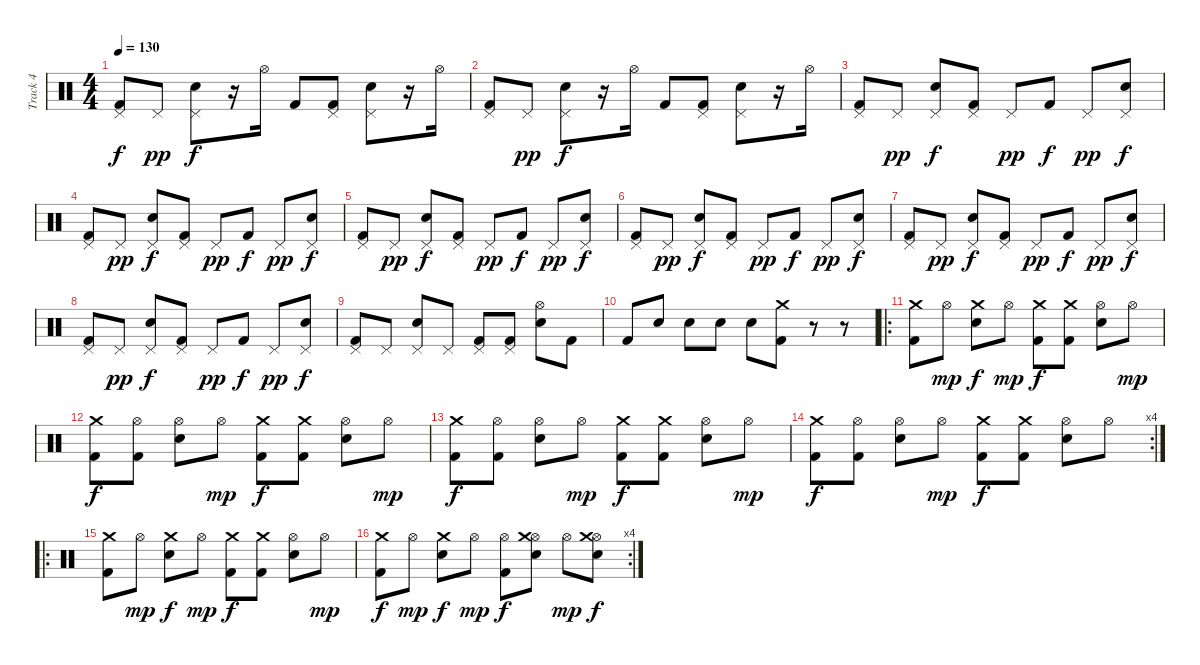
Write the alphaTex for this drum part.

\track ("Track 4" "Track 4") {instrument percussion}
\staff {score}
\articulation defaults
\ts (4 4)
\tempo 130
\clef neutral
\ks c
("Pedal Hi-Hat (hit)" "Kick (hit) 2").8{dy f} "Pedal Hi-Hat (hit)".8{dy pp} ("Pedal Hi-Hat (hit)" "Electric Snare (hit)").8{dy f} r.16 "Hi-Hat (open)".16 "Kick (hit) 2".8 ("Pedal Hi-Hat (hit)" "Kick (hit) 2").8 ("Pedal Hi-Hat (hit)" "Electric Snare (hit)").8 r.16 "Hi-Hat (open)".16 |
("Pedal Hi-Hat (hit)" "Kick (hit) 2").8 "Pedal Hi-Hat (hit)".8{dy pp} ("Pedal Hi-Hat (hit)" "Electric Snare (hit)").8{dy f} r.16 "Hi-Hat (open)".16 "Kick (hit) 2".8 ("Pedal Hi-Hat (hit)" "Kick (hit) 2").8 ("Pedal Hi-Hat (hit)" "Electric Snare (hit)").8 r.16 "Hi-Hat (open)".16 |
("Pedal Hi-Hat (hit)" "Kick (hit) 2").8 "Pedal Hi-Hat (hit)".8{dy pp} ("Pedal Hi-Hat (hit)" "Electric Snare (hit)").8{dy f} ("Pedal Hi-Hat (hit)" "Kick (hit) 2").8 "Pedal Hi-Hat (hit)".8{dy pp} "Kick (hit) 2".8{dy f} "Pedal Hi-Hat (hit)".8{dy pp} ("Pedal Hi-Hat (hit)" "Electric Snare (hit)").8{dy f} |
("Pedal Hi-Hat (hit)" "Kick (hit) 2").8 "Pedal Hi-Hat (hit)".8{dy pp} ("Pedal Hi-Hat (hit)" "Electric Snare (hit)").8{dy f} ("Pedal Hi-Hat (hit)" "Kick (hit) 2").8 "Pedal Hi-Hat (hit)".8{dy pp} "Kick (hit) 2".8{dy f} "Pedal Hi-Hat (hit)".8{dy pp} ("Pedal Hi-Hat (hit)" "Electric Snare (hit)").8{dy f} |
("Pedal Hi-Hat (hit)" "Kick (hit) 2").8 "Pedal Hi-Hat (hit)".8{dy pp} ("Pedal Hi-Hat (hit)" "Electric Snare (hit)").8{dy f} ("Pedal Hi-Hat (hit)" "Kick (hit) 2").8 "Pedal Hi-Hat (hit)".8{dy pp} "Kick (hit) 2".8{dy f} "Pedal Hi-Hat (hit)".8{dy pp} ("Pedal Hi-Hat (hit)" "Electric Snare (hit)").8{dy f} |
("Pedal Hi-Hat (hit)" "Kick (hit) 2").8 "Pedal Hi-Hat (hit)".8{dy pp} ("Pedal Hi-Hat (hit)" "Electric Snare (hit)").8{dy f} ("Pedal Hi-Hat (hit)" "Kick (hit) 2").8 "Pedal Hi-Hat (hit)".8{dy pp} "Kick (hit) 2".8{dy f} "Pedal Hi-Hat (hit)".8{dy pp} ("Pedal Hi-Hat (hit)" "Electric Snare (hit)").8{dy f} |
("Pedal Hi-Hat (hit)" "Kick (hit) 2").8 "Pedal Hi-Hat (hit)".8{dy pp} ("Pedal Hi-Hat (hit)" "Electric Snare (hit)").8{dy f} ("Pedal Hi-Hat (hit)" "Kick (hit) 2").8 "Pedal Hi-Hat (hit)".8{dy pp} "Kick (hit) 2".8{dy f} "Pedal Hi-Hat (hit)".8{dy pp} ("Pedal Hi-Hat (hit)" "Electric Snare (hit)").8{dy f} |
("Pedal Hi-Hat (hit)" "Kick (hit) 2").8 "Pedal Hi-Hat (hit)".8{dy pp} ("Pedal Hi-Hat (hit)" "Electric Snare (hit)").8{dy f} ("Pedal Hi-Hat (hit)" "Kick (hit) 2").8 "Pedal Hi-Hat (hit)".8{dy pp} "Kick (hit) 2".8{dy f} "Pedal Hi-Hat (hit)".8{dy pp} ("Pedal Hi-Hat (hit)" "Electric Snare (hit)").8{dy f} |
("Pedal Hi-Hat (hit)" "Kick (hit) 2").8 "Pedal Hi-Hat (hit)".8 ("Pedal Hi-Hat (hit)" "Electric Snare (hit)").8 "Pedal Hi-Hat (hit)".8 ("Pedal Hi-Hat (hit)" "Kick (hit) 2").8 ("Pedal Hi-Hat (hit)" "Kick (hit) 2").8 ("Hi-Hat (open)" "Electric Snare (hit)").8 "Kick (hit) 2".8 |
"Kick (hit) 2".8 "Electric Snare (hit)".8 "Electric Snare (hit)".8 "Electric Snare (hit)".8 "Electric Snare (hit)".8 ("Crash medium (hit)" "Kick (hit) 2").8 r.8 r.8 |
\ro
("Crash medium (hit)" "Kick (hit) 2").8 "Hi-Hat (open)".8{dy mp} ("Crash medium (hit)" "Electric Snare (hit)").8{dy f} "Hi-Hat (open)".8{dy mp} ("Crash medium (hit)" "Kick (hit) 2").8{dy f} ("Crash medium (hit)" "Kick (hit) 2").8 ("Hi-Hat (open)" "Electric Snare (hit)").8 "Hi-Hat (open)".8{dy mp} |
("Crash medium (hit)" "Kick (hit) 2").8{dy f} ("Hi-Hat (open)" "Kick (hit) 2").8 ("Hi-Hat (open)" "Electric Snare (hit)").8 "Hi-Hat (open)".8{dy mp} ("Crash medium (hit)" "Kick (hit) 2").8{dy f} ("Crash medium (hit)" "Kick (hit) 2").8 ("Hi-Hat (open)" "Electric Snare (hit)").8 "Hi-Hat (open)".8{dy mp} |
("Crash medium (hit)" "Kick (hit) 2").8{dy f} ("Hi-Hat (open)" "Kick (hit) 2").8 ("Hi-Hat (open)" "Electric Snare (hit)").8 "Hi-Hat (open)".8{dy mp} ("Crash medium (hit)" "Kick (hit) 2").8{dy f} ("Crash medium (hit)" "Kick (hit) 2").8 ("Hi-Hat (open)" "Electric Snare (hit)").8 "Hi-Hat (open)".8{dy mp} |
\rc 4
("Crash medium (hit)" "Kick (hit) 2").8{dy f} ("Hi-Hat (open)" "Kick (hit) 2").8 ("Hi-Hat (open)" "Electric Snare (hit)").8 "Hi-Hat (open)".8{dy mp} ("Crash medium (hit)" "Kick (hit) 2").8{dy f} ("Crash medium (hit)" "Kick (hit) 2").8 ("Hi-Hat (open)" "Electric Snare (hit)").8 "Hi-Hat (open)".8 |
\ro
("Crash medium (hit)" "Kick (hit) 2").8 "Hi-Hat (open)".8{dy mp} ("Crash medium (hit)" "Electric Snare (hit)").8{dy f} "Hi-Hat (open)".8{dy mp} ("Crash medium (hit)" "Kick (hit) 2").8{dy f} ("Crash medium (hit)" "Kick (hit) 2").8 ("Hi-Hat (open)" "Electric Snare (hit)").8 "Hi-Hat (open)".8{dy mp} |
\rc 4
("Crash medium (hit)" "Kick (hit) 2").8{dy f} "Hi-Hat (open)".8{dy mp} ("Crash medium (hit)" "Electric Snare (hit)").8{dy f} "Hi-Hat (open)".8{dy mp} ("Hi-Hat (open)" "Kick (hit) 2").8{dy f} ("Hi-Hat (open)" "Crash medium (hit)" "Electric Snare (hit)").8 "Hi-Hat (open)".8{dy mp} ("Hi-Hat (open)" "Crash medium (hit)" "Electric Snare (hit)").8{dy f}
